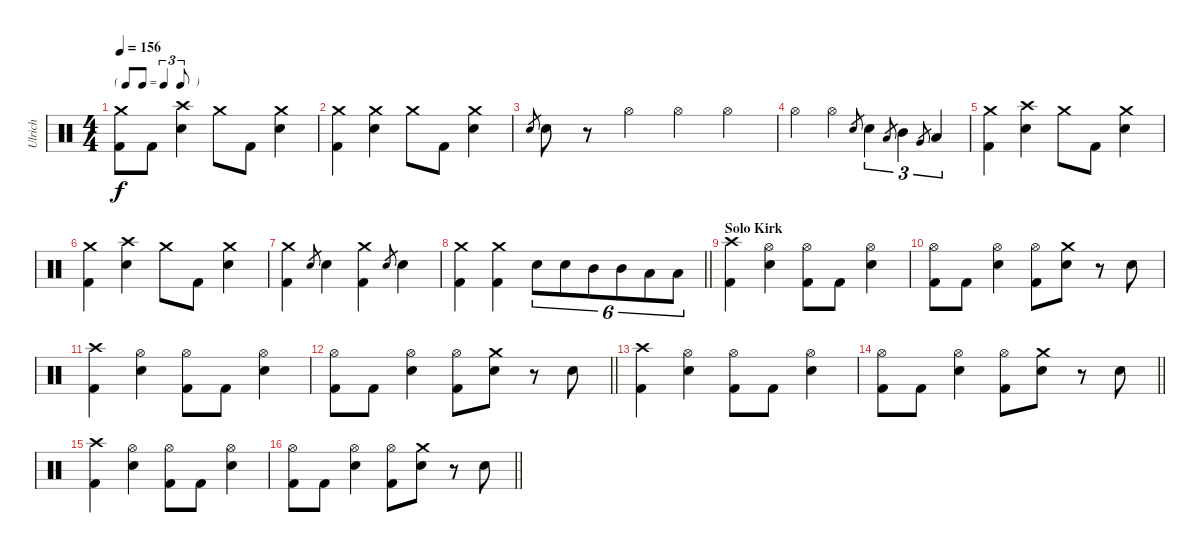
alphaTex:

\track ("Ulrich" "Ulrich") {instrument percussion}
\staff {score}
\articulation defaults
\ts (4 4)
\tf triplet8th
\tempo 156
\clef neutral
\ks c
("Crash medium (hit)" "Kick (hit) 2").8{dy f} "Kick (hit) 2".8 ("Crash high (hit)" "Electric Snare (hit)").4 "Crash medium (hit)".8 "Kick (hit) 2".8 ("Crash medium (hit)" "Electric Snare (hit)").4 |
("Crash medium (hit)" "Kick (hit) 2").4 ("Crash medium (hit)" "Electric Snare (hit)").4 "Crash medium (hit)".8 "Kick (hit) 2".8 ("Crash medium (hit)" "Electric Snare (hit)").4 |
"Electric Snare (hit)".8{gr} "Electric Snare (hit)".8 r.8 "Hi-Hat (open)".4 "Hi-Hat (open)".4 "Hi-Hat (open)".4 |
"Hi-Hat (open)".4 "Hi-Hat (open)".4 "Electric Snare (hit)".8{gr} "Electric Snare (hit)".4{tu (3 2)} "Low Tom (hit)".8{gr} "Mid Tom (hit)".4{tu (3 2)} "Very Low Tom (hit)".8{gr} "Low Tom (hit)".4{tu (3 2)} |
("Crash medium (hit)" "Kick (hit) 2").4 ("Crash high (hit)" "Electric Snare (hit)").4 "Crash medium (hit)".8 "Kick (hit) 2".8 ("Crash medium (hit)" "Electric Snare (hit)").4 |
("Crash medium (hit)" "Kick (hit) 2").4 ("Crash high (hit)" "Electric Snare (hit)").4 "Crash medium (hit)".8 "Kick (hit) 2".8 ("Crash medium (hit)" "Electric Snare (hit)").4 |
("Crash medium (hit)" "Kick (hit) 2").4 "Electric Snare (hit)".8{gr} "Electric Snare (hit)".4 ("Crash medium (hit)" "Kick (hit) 2").4 "Electric Snare (hit)".8{gr} "Electric Snare (hit)".4 |
\barLineRight lightlight
("Crash medium (hit)" "Kick (hit) 2").4 ("Crash medium (hit)" "Kick (hit) 2").4 "Electric Snare (hit)".8{tu (6 4)} "Electric Snare (hit)".8{tu (6 4)} "Mid Tom (hit)".8{tu (6 4)} "Mid Tom (hit)".8{tu (6 4)} "Low Tom (hit)".8{tu (6 4)} "Low Tom (hit)".8{tu (6 4)} |
\section ("" "Solo Kirk")
("Crash high (hit)" "Kick (hit) 2").4 ("Hi-Hat (open)" "Electric Snare (hit)").4 ("Hi-Hat (open)" "Kick (hit) 2").8 "Kick (hit) 2".8 ("Hi-Hat (open)" "Electric Snare (hit)").4 |
("Hi-Hat (open)" "Kick (hit) 2").8 "Kick (hit) 2".8 ("Hi-Hat (open)" "Electric Snare (hit)").4 ("Hi-Hat (open)" "Kick (hit) 2").8 ("Crash medium (hit)" "Electric Snare (hit)").8 r.8 "Electric Snare (hit)".8 |
("Crash high (hit)" "Kick (hit) 2").4 ("Hi-Hat (open)" "Electric Snare (hit)").4 ("Hi-Hat (open)" "Kick (hit) 2").8 "Kick (hit) 2".8 ("Hi-Hat (open)" "Electric Snare (hit)").4 |
\barLineRight lightlight
("Hi-Hat (open)" "Kick (hit) 2").8 "Kick (hit) 2".8 ("Hi-Hat (open)" "Electric Snare (hit)").4 ("Hi-Hat (open)" "Kick (hit) 2").8 ("Crash medium (hit)" "Electric Snare (hit)").8 r.8 "Electric Snare (hit)".8 |
("Crash high (hit)" "Kick (hit) 2").4 ("Hi-Hat (open)" "Electric Snare (hit)").4 ("Hi-Hat (open)" "Kick (hit) 2").8 "Kick (hit) 2".8 ("Hi-Hat (open)" "Electric Snare (hit)").4 |
\barLineRight lightlight
("Hi-Hat (open)" "Kick (hit) 2").8 "Kick (hit) 2".8 ("Hi-Hat (open)" "Electric Snare (hit)").4 ("Hi-Hat (open)" "Kick (hit) 2").8 ("Crash medium (hit)" "Electric Snare (hit)").8 r.8 "Electric Snare (hit)".8 |
("Crash high (hit)" "Kick (hit) 2").4 ("Hi-Hat (open)" "Electric Snare (hit)").4 ("Hi-Hat (open)" "Kick (hit) 2").8 "Kick (hit) 2".8 ("Hi-Hat (open)" "Electric Snare (hit)").4 |
\barLineRight lightlight
("Hi-Hat (open)" "Kick (hit) 2").8 "Kick (hit) 2".8 ("Hi-Hat (open)" "Electric Snare (hit)").4 ("Hi-Hat (open)" "Kick (hit) 2").8 ("Crash medium (hit)" "Electric Snare (hit)").8 r.8 "Electric Snare (hit)".8
